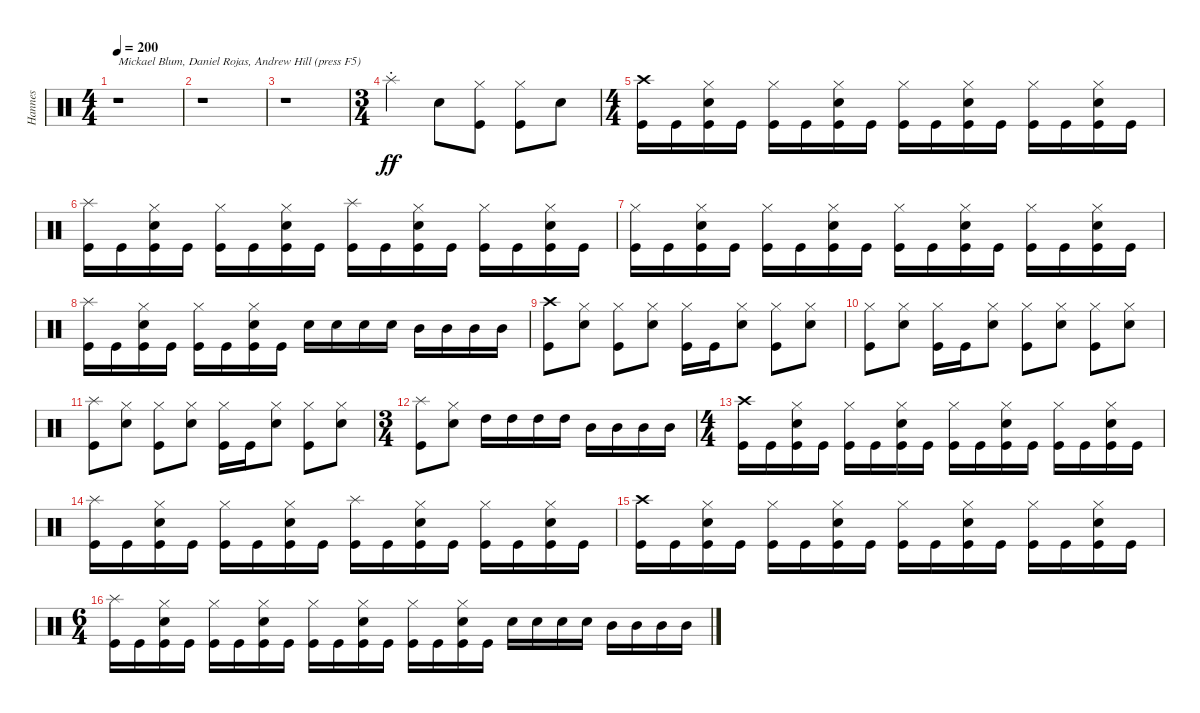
\track ("Hannes" "Hannes") {instrument percussion}
\staff {score}
\articulation defaults
\ts (4 4)
\tempo 200
\clef neutral
\ks c
r.1{txt "Mickael Blum, Daniel Rojas, Andrew Hill (press F5)" dy ff} |
r.1 |
r.1 |
\ts (3 4)
"Splash (hit)"{st}.4 "Electric Snare (hit)".8 ("Hi-Hat (closed)" "Kick (hit)").8 ("Hi-Hat (closed)" "Kick (hit)").8 "Electric Snare (hit)".8 |
\ts (4 4)
("Crash high (hit)" "Kick (hit)").16 "Kick (hit)".16 ("Hi-Hat (closed)" "Electric Snare (hit)" "Kick (hit)").16 "Kick (hit)".16 ("Hi-Hat (closed)" "Kick (hit)").16 "Kick (hit)".16 ("Hi-Hat (closed)" "Electric Snare (hit)" "Kick (hit)").16 "Kick (hit)".16 ("Hi-Hat (closed)" "Kick (hit)").16 "Kick (hit)".16 ("Hi-Hat (closed)" "Electric Snare (hit)" "Kick (hit)").16 "Kick (hit)".16 ("Hi-Hat (closed)" "Kick (hit)").16 "Kick (hit)".16 ("Hi-Hat (closed)" "Electric Snare (hit)" "Kick (hit)").16 "Kick (hit)".16 |
("Splash (hit)" "Kick (hit)").16 "Kick (hit)".16 ("Hi-Hat (closed)" "Electric Snare (hit)" "Kick (hit)").16 "Kick (hit)".16 ("Hi-Hat (closed)" "Kick (hit)").16 "Kick (hit)".16 ("Hi-Hat (closed)" "Electric Snare (hit)" "Kick (hit)").16 "Kick (hit)".16 ("Splash (hit)" "Kick (hit)").16 "Kick (hit)".16 ("Hi-Hat (closed)" "Electric Snare (hit)" "Kick (hit)").16 "Kick (hit)".16 ("Hi-Hat (closed)" "Kick (hit)").16 "Kick (hit)".16 ("Hi-Hat (closed)" "Electric Snare (hit)" "Kick (hit)").16 "Kick (hit)".16 |
("Hi-Hat (closed)" "Kick (hit)").16 "Kick (hit)".16 ("Hi-Hat (closed)" "Electric Snare (hit)" "Kick (hit)").16 "Kick (hit)".16 ("Hi-Hat (closed)" "Kick (hit)").16 "Kick (hit)".16 ("Hi-Hat (closed)" "Electric Snare (hit)" "Kick (hit)").16 "Kick (hit)".16 ("Hi-Hat (closed)" "Kick (hit)").16 "Kick (hit)".16 ("Hi-Hat (closed)" "Electric Snare (hit)" "Kick (hit)").16 "Kick (hit)".16 ("Hi-Hat (closed)" "Kick (hit)").16 "Kick (hit)".16 ("Hi-Hat (closed)" "Electric Snare (hit)" "Kick (hit)").16 "Kick (hit)".16 |
("Splash (hit)" "Kick (hit)").16 "Kick (hit)".16 ("Hi-Hat (closed)" "Electric Snare (hit)" "Kick (hit)").16 "Kick (hit)".16 ("Hi-Hat (closed)" "Kick (hit)").16 "Kick (hit)".16 ("Hi-Hat (closed)" "Electric Snare (hit)" "Kick (hit)").16 "Kick (hit)".16 "Electric Snare (hit)".16 "Electric Snare (hit)".16 "Electric Snare (hit)".16 "Electric Snare (hit)".16 "Mid Tom (hit)".16 "Mid Tom (hit)".16 "Mid Tom (hit)".16 "Mid Tom (hit)".16 |
("Crash high (hit)" "Kick (hit)").8 ("Hi-Hat (closed)" "Electric Snare (hit)").8 ("Hi-Hat (closed)" "Kick (hit)").8 ("Hi-Hat (closed)" "Electric Snare (hit)").8 ("Hi-Hat (closed)" "Kick (hit)").16 "Kick (hit)".16 ("Hi-Hat (closed)" "Electric Snare (hit)").8 ("Hi-Hat (closed)" "Kick (hit)").8 ("Hi-Hat (closed)" "Electric Snare (hit)").8 |
("Hi-Hat (closed)" "Kick (hit)").8 ("Hi-Hat (closed)" "Electric Snare (hit)").8 ("Hi-Hat (closed)" "Kick (hit)").16 "Kick (hit)".16 ("Hi-Hat (closed)" "Electric Snare (hit)").8 ("Hi-Hat (closed)" "Kick (hit)").8 ("Hi-Hat (closed)" "Electric Snare (hit)").8 ("Hi-Hat (closed)" "Kick (hit)").8 ("Hi-Hat (closed)" "Electric Snare (hit)").8 |
("Splash (hit)" "Kick (hit)").8 ("Hi-Hat (closed)" "Electric Snare (hit)").8 ("Hi-Hat (closed)" "Kick (hit)").8 ("Hi-Hat (closed)" "Electric Snare (hit)").8 ("Hi-Hat (closed)" "Kick (hit)").16 "Kick (hit)".16 ("Hi-Hat (closed)" "Electric Snare (hit)").8 ("Hi-Hat (closed)" "Kick (hit)").8 ("Hi-Hat (closed)" "Electric Snare (hit)").8 |
\ts (3 4)
("Splash (hit)" "Kick (hit)").8 ("Hi-Hat (closed)" "Electric Snare (hit)").8 "High Tom (hit)".16 "High Tom (hit)".16 "High Tom (hit)".16 "High Tom (hit)".16 "Mid Tom (hit)".16 "Mid Tom (hit)".16 "Mid Tom (hit)".16 "Mid Tom (hit)".16 |
\ts (4 4)
("Crash high (hit)" "Kick (hit)").16 "Kick (hit)".16 ("Hi-Hat (closed)" "Electric Snare (hit)" "Kick (hit)").16 "Kick (hit)".16 ("Hi-Hat (closed)" "Kick (hit)").16 "Kick (hit)".16 ("Hi-Hat (closed)" "Electric Snare (hit)" "Kick (hit)").16 "Kick (hit)".16 ("Hi-Hat (closed)" "Kick (hit)").16 "Kick (hit)".16 ("Hi-Hat (closed)" "Electric Snare (hit)" "Kick (hit)").16 "Kick (hit)".16 ("Hi-Hat (closed)" "Kick (hit)").16 "Kick (hit)".16 ("Hi-Hat (closed)" "Electric Snare (hit)" "Kick (hit)").16 "Kick (hit)".16 |
("Splash (hit)" "Kick (hit)").16 "Kick (hit)".16 ("Hi-Hat (closed)" "Electric Snare (hit)" "Kick (hit)").16 "Kick (hit)".16 ("Hi-Hat (closed)" "Kick (hit)").16 "Kick (hit)".16 ("Hi-Hat (closed)" "Electric Snare (hit)" "Kick (hit)").16 "Kick (hit)".16 ("Splash (hit)" "Kick (hit)").16 "Kick (hit)".16 ("Hi-Hat (closed)" "Electric Snare (hit)" "Kick (hit)").16 "Kick (hit)".16 ("Hi-Hat (closed)" "Kick (hit)").16 "Kick (hit)".16 ("Hi-Hat (closed)" "Electric Snare (hit)" "Kick (hit)").16 "Kick (hit)".16 |
("Crash high (hit)" "Kick (hit)").16 "Kick (hit)".16 ("Hi-Hat (closed)" "Electric Snare (hit)" "Kick (hit)").16 "Kick (hit)".16 ("Hi-Hat (closed)" "Kick (hit)").16 "Kick (hit)".16 ("Hi-Hat (closed)" "Electric Snare (hit)" "Kick (hit)").16 "Kick (hit)".16 ("Hi-Hat (closed)" "Kick (hit)").16 "Kick (hit)".16 ("Hi-Hat (closed)" "Electric Snare (hit)" "Kick (hit)").16 "Kick (hit)".16 ("Hi-Hat (closed)" "Kick (hit)").16 "Kick (hit)".16 ("Hi-Hat (closed)" "Electric Snare (hit)" "Kick (hit)").16 "Kick (hit)".16 |
\ts (6 4)
("Splash (hit)" "Kick (hit)").16 "Kick (hit)".16 ("Hi-Hat (closed)" "Electric Snare (hit)" "Kick (hit)").16 "Kick (hit)".16 ("Hi-Hat (closed)" "Kick (hit)").16 "Kick (hit)".16 ("Hi-Hat (closed)" "Electric Snare (hit)" "Kick (hit)").16 "Kick (hit)".16 ("Hi-Hat (closed)" "Kick (hit)").16 "Kick (hit)".16 ("Hi-Hat (closed)" "Electric Snare (hit)" "Kick (hit)").16 "Kick (hit)".16 ("Hi-Hat (closed)" "Kick (hit)").16 "Kick (hit)".16 ("Hi-Hat (closed)" "Electric Snare (hit)" "Kick (hit)").16 "Kick (hit)".16 "Electric Snare (hit)".16 "Electric Snare (hit)".16 "Electric Snare (hit)".16 "Electric Snare (hit)".16 "Mid Tom (hit)".16 "Mid Tom (hit)".16 "Mid Tom (hit)".16 "Mid Tom (hit)".16
